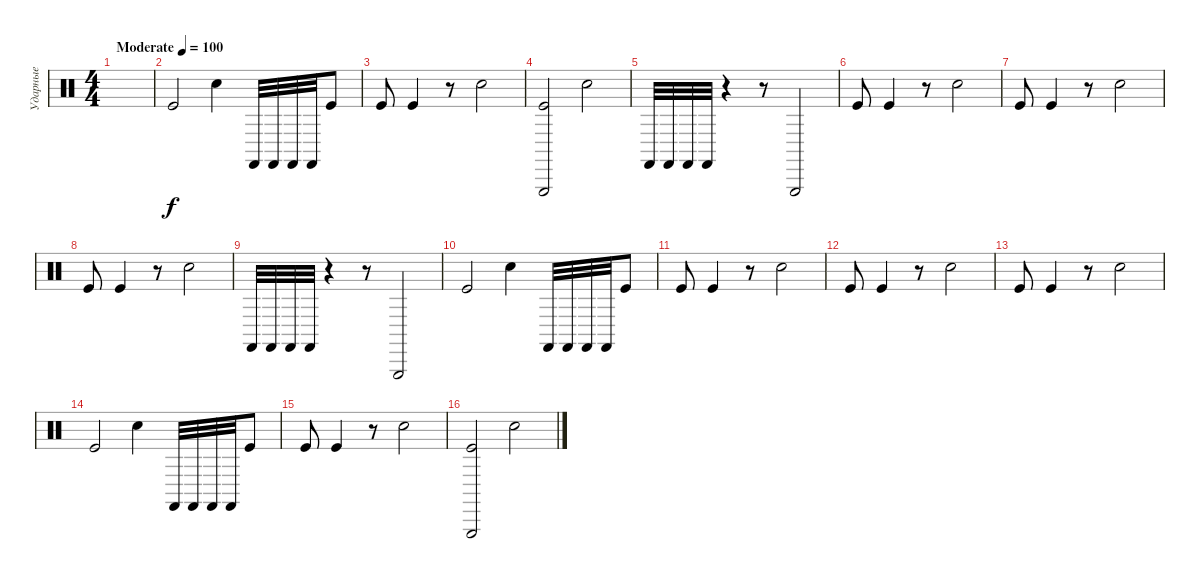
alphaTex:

\track ("Ударные" "Ударные") {instrument percussion}
\staff {score}
\articulation defaults
\ts (4 4)
\tempo (100 "Moderate")
\clef neutral
\ks c
|
"Kick (hit)".2 "Snare (hit) 2".4 "Castanets (hit)".32 "Castanets (hit)".32 "Castanets (hit)".32 "Castanets (hit)".32 "Kick (hit)".8 |
"Kick (hit)".8 "Kick (hit)".4 r.8 "Snare (hit) 2".2 |
("Triangle (hit)" "Kick (hit)").2 "Snare (hit) 2".2 |
"Castanets (hit)".32 "Castanets (hit)".32 "Castanets (hit)".32 "Castanets (hit)".32 r.4 r.8 "Triangle (hit)".2 |
"Kick (hit)".8 "Kick (hit)".4 r.8 "Snare (hit) 2".2 |
"Kick (hit)".8 "Kick (hit)".4 r.8 "Snare (hit) 2".2 |
"Kick (hit)".8 "Kick (hit)".4 r.8 "Snare (hit) 2".2 |
"Castanets (hit)".32 "Castanets (hit)".32 "Castanets (hit)".32 "Castanets (hit)".32 r.4 r.8 "Triangle (hit)".2 |
"Kick (hit)".2 "Snare (hit) 2".4 "Castanets (hit)".32 "Castanets (hit)".32 "Castanets (hit)".32 "Castanets (hit)".32 "Kick (hit)".8 |
"Kick (hit)".8 "Kick (hit)".4 r.8 "Snare (hit) 2".2 |
"Kick (hit)".8 "Kick (hit)".4 r.8 "Snare (hit) 2".2 |
"Kick (hit)".8 "Kick (hit)".4 r.8 "Snare (hit) 2".2 |
"Kick (hit)".2 "Snare (hit) 2".4 "Castanets (hit)".32 "Castanets (hit)".32 "Castanets (hit)".32 "Castanets (hit)".32 "Kick (hit)".8 |
"Kick (hit)".8 "Kick (hit)".4 r.8 "Snare (hit) 2".2 |
("Triangle (hit)" "Kick (hit)").2 "Snare (hit) 2".2
